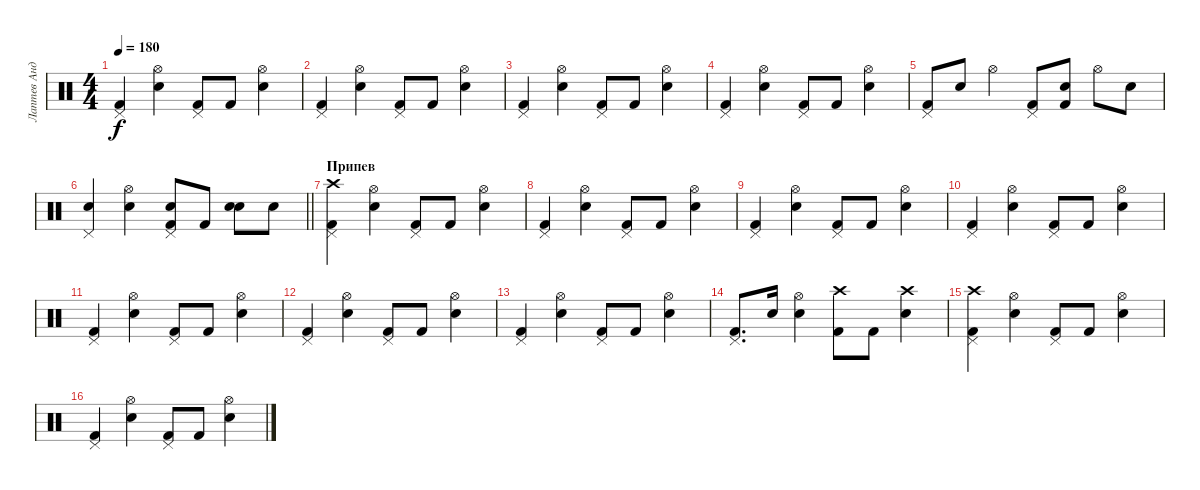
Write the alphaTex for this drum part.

\track ("Лаптев Андрей" "Лаптев Анд") {instrument percussion}
\staff {score}
\articulation defaults
\ts (4 4)
\tempo 180
\clef neutral
\ks c
("Kick (hit) 2" "Pedal Hi-Hat (hit)").4{dy f} ("Snare (hit) 2" "Hi-Hat (open)").4 ("Kick (hit) 2" "Pedal Hi-Hat (hit)").8 "Kick (hit) 2".8 ("Snare (hit) 2" "Hi-Hat (open)").4 |
("Kick (hit) 2" "Pedal Hi-Hat (hit)").4 ("Snare (hit) 2" "Hi-Hat (open)").4 ("Kick (hit) 2" "Pedal Hi-Hat (hit)").8 "Kick (hit) 2".8 ("Snare (hit) 2" "Hi-Hat (open)").4 |
("Kick (hit) 2" "Pedal Hi-Hat (hit)").4 ("Snare (hit) 2" "Hi-Hat (open)").4 ("Kick (hit) 2" "Pedal Hi-Hat (hit)").8 "Kick (hit) 2".8 ("Snare (hit) 2" "Hi-Hat (open)").4 |
("Kick (hit) 2" "Pedal Hi-Hat (hit)").4 ("Snare (hit) 2" "Hi-Hat (open)").4 ("Kick (hit) 2" "Pedal Hi-Hat (hit)").8 "Kick (hit) 2".8 ("Snare (hit) 2" "Hi-Hat (open)").4 |
("Kick (hit) 2" "Pedal Hi-Hat (hit)").8 "Snare (hit) 2".8 "Hi-Hat (open)".4 ("Kick (hit) 2" "Pedal Hi-Hat (hit)").8 ("Snare (hit) 2" "Kick (hit) 2").8 "Hi-Hat (open)".8 "Snare (hit) 2".8 |
\barLineRight lightlight
("Snare (hit) 2" "Pedal Hi-Hat (hit)").4 ("Snare (hit) 2" "Hi-Hat (open)").4 ("Snare (hit) 2" "Kick (hit) 2" "Pedal Hi-Hat (hit)").8 "Kick (hit) 2".8 ("Snare (hit) 2" "Electric Snare (hit)").8 "Snare (hit) 2".8 |
\section ("" "Припев")
("Kick (hit) 2" "Crash high (hit)" "Pedal Hi-Hat (hit)").4 ("Snare (hit) 2" "Hi-Hat (open)").4 ("Kick (hit) 2" "Pedal Hi-Hat (hit)").8 "Kick (hit) 2".8 ("Snare (hit) 2" "Hi-Hat (open)").4 |
("Kick (hit) 2" "Pedal Hi-Hat (hit)").4 ("Snare (hit) 2" "Hi-Hat (open)").4 ("Kick (hit) 2" "Pedal Hi-Hat (hit)").8 "Kick (hit) 2".8 ("Snare (hit) 2" "Hi-Hat (open)").4 |
("Kick (hit) 2" "Pedal Hi-Hat (hit)").4 ("Snare (hit) 2" "Hi-Hat (open)").4 ("Kick (hit) 2" "Pedal Hi-Hat (hit)").8 "Kick (hit) 2".8 ("Snare (hit) 2" "Hi-Hat (open)").4 |
("Kick (hit) 2" "Pedal Hi-Hat (hit)").4 ("Snare (hit) 2" "Hi-Hat (open)").4 ("Kick (hit) 2" "Pedal Hi-Hat (hit)").8 "Kick (hit) 2".8 ("Snare (hit) 2" "Hi-Hat (open)").4 |
("Kick (hit) 2" "Pedal Hi-Hat (hit)").4 ("Snare (hit) 2" "Hi-Hat (open)").4 ("Kick (hit) 2" "Pedal Hi-Hat (hit)").8 "Kick (hit) 2".8 ("Snare (hit) 2" "Hi-Hat (open)").4 |
("Kick (hit) 2" "Pedal Hi-Hat (hit)").4 ("Snare (hit) 2" "Hi-Hat (open)").4 ("Kick (hit) 2" "Pedal Hi-Hat (hit)").8 "Kick (hit) 2".8 ("Snare (hit) 2" "Hi-Hat (open)").4 |
("Kick (hit) 2" "Pedal Hi-Hat (hit)").4 ("Snare (hit) 2" "Hi-Hat (open)").4 ("Kick (hit) 2" "Pedal Hi-Hat (hit)").8 "Kick (hit) 2".8 ("Snare (hit) 2" "Hi-Hat (open)").4 |
("Kick (hit) 2" "Pedal Hi-Hat (hit)").8{d} "Snare (hit) 2".16 ("Snare (hit) 2" "Hi-Hat (open)").4 ("Kick (hit) 2" "Crash high (hit)").8 "Kick (hit) 2".8 ("Snare (hit) 2" "Crash high (hit)").4 |
("Kick (hit) 2" "Crash high (hit)" "Pedal Hi-Hat (hit)").4 ("Snare (hit) 2" "Hi-Hat (open)").4 ("Kick (hit) 2" "Pedal Hi-Hat (hit)").8 "Kick (hit) 2".8 ("Snare (hit) 2" "Hi-Hat (open)").4 |
("Kick (hit) 2" "Pedal Hi-Hat (hit)").4 ("Snare (hit) 2" "Hi-Hat (open)").4 ("Kick (hit) 2" "Pedal Hi-Hat (hit)").8 "Kick (hit) 2".8 ("Snare (hit) 2" "Hi-Hat (open)").4
